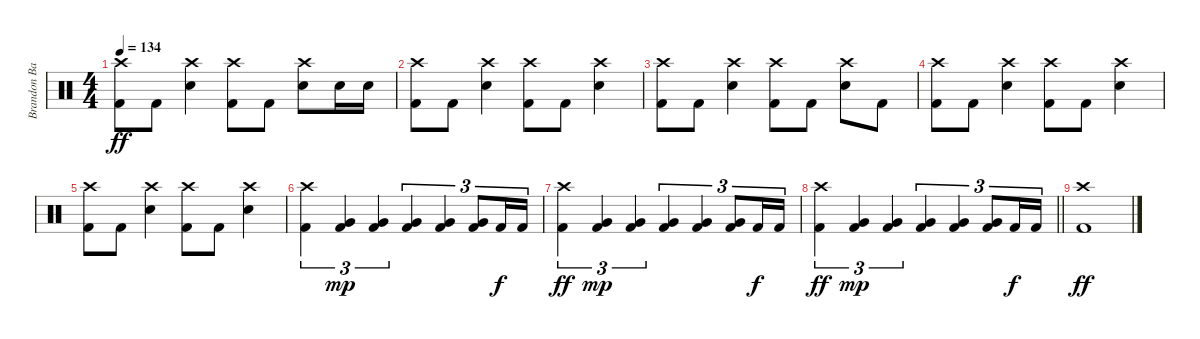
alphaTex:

\track ("Brandon Barnes - Drums" "Brandon Ba") {instrument percussion}
\staff {score}
\articulation defaults
\ts (4 4)
\tempo 134
\clef neutral
\ks c
("Crash high (hit)" "Kick (hit) 2").8{dy ff} "Kick (hit) 2".8 ("Snare (hit) 2" "Crash high (hit)").4 ("Crash high (hit)" "Kick (hit) 2").8 "Kick (hit) 2".8 ("Snare (hit) 2" "Crash high (hit)").8 "Snare (hit) 2".16 "Snare (hit) 2".16 |
("Crash high (hit)" "Kick (hit) 2").8 "Kick (hit) 2".8 ("Snare (hit) 2" "Crash high (hit)").4 ("Crash high (hit)" "Kick (hit) 2").8 "Kick (hit) 2".8 ("Snare (hit) 2" "Crash high (hit)").4 |
("Crash high (hit)" "Kick (hit) 2").8 "Kick (hit) 2".8 ("Snare (hit) 2" "Crash high (hit)").4 ("Crash high (hit)" "Kick (hit) 2").8 "Kick (hit) 2".8 ("Snare (hit) 2" "Crash high (hit)").8 "Kick (hit) 2".8 |
("Crash high (hit)" "Kick (hit) 2").8 "Kick (hit) 2".8 ("Snare (hit) 2" "Crash high (hit)").4 ("Crash high (hit)" "Kick (hit) 2").8 "Kick (hit) 2".8 ("Snare (hit) 2" "Crash high (hit)").4 |
("Crash high (hit)" "Kick (hit) 2").8 "Kick (hit) 2".8 ("Snare (hit) 2" "Crash high (hit)").4 ("Crash high (hit)" "Kick (hit) 2").8 "Kick (hit) 2".8 ("Snare (hit) 2" "Crash high (hit)").4 |
("Crash high (hit)" "Kick (hit) 2").4{tu (3 2)} ("Very Low Tom (hit)" "Kick (hit) 2").4{tu (3 2) dy mp} ("Very Low Tom (hit)" "Kick (hit) 2").4{tu (3 2)} ("Very Low Tom (hit)" "Kick (hit) 2").4{tu (3 2)} ("Very Low Tom (hit)" "Kick (hit) 2").4{tu (3 2)} ("Very Low Tom (hit)" "Kick (hit) 2").8{tu (3 2)} "Kick (hit) 2".16{tu (3 2) dy f} "Kick (hit) 2".16{tu (3 2)} |
("Crash high (hit)" "Kick (hit) 2").4{tu (3 2) dy ff} ("Very Low Tom (hit)" "Kick (hit) 2").4{tu (3 2) dy mp} ("Very Low Tom (hit)" "Kick (hit) 2").4{tu (3 2)} ("Very Low Tom (hit)" "Kick (hit) 2").4{tu (3 2)} ("Very Low Tom (hit)" "Kick (hit) 2").4{tu (3 2)} ("Very Low Tom (hit)" "Kick (hit) 2").8{tu (3 2)} "Kick (hit) 2".16{tu (3 2) dy f} "Kick (hit) 2".16{tu (3 2)} |
\barLineRight lightlight
("Crash high (hit)" "Kick (hit) 2").4{tu (3 2) dy ff} ("Very Low Tom (hit)" "Kick (hit) 2").4{tu (3 2) dy mp} ("Very Low Tom (hit)" "Kick (hit) 2").4{tu (3 2)} ("Very Low Tom (hit)" "Kick (hit) 2").4{tu (3 2)} ("Very Low Tom (hit)" "Kick (hit) 2").4{tu (3 2)} ("Very Low Tom (hit)" "Kick (hit) 2").8{tu (3 2)} "Kick (hit) 2".16{tu (3 2) dy f} "Kick (hit) 2".16{tu (3 2)} |
("Crash high (hit)" "Kick (hit) 2").1{dy ff}
